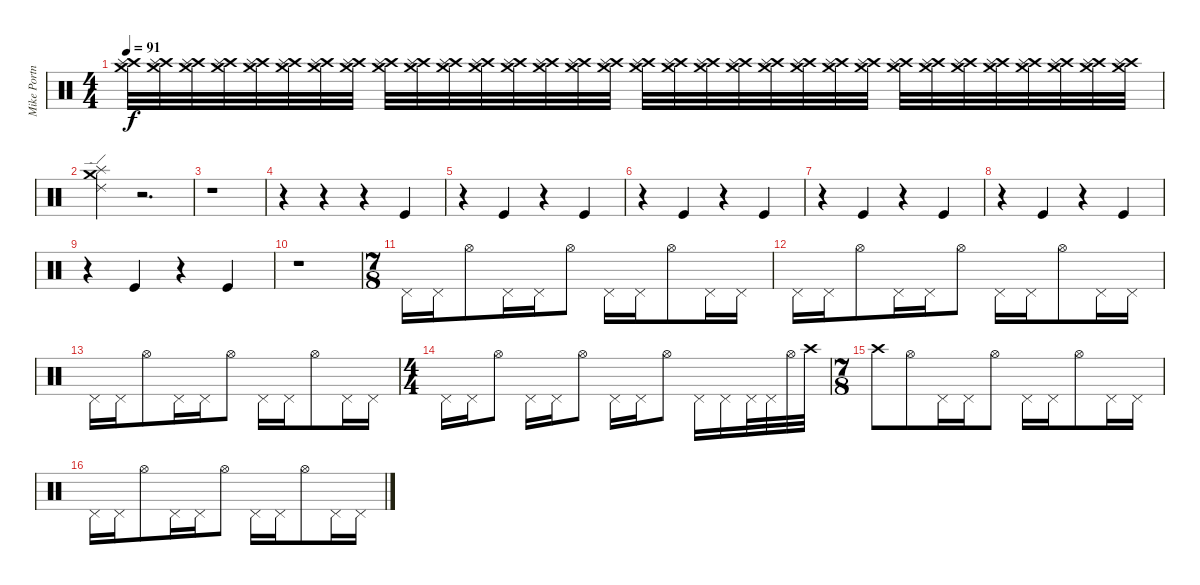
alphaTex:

\track ("Mike Portnoy" "Mike Portn") {instrument percussion}
\staff {score}
\articulation defaults
\ts (4 4)
\tempo 91
\clef neutral
\ks c
("Crash high (hit)" "Crash medium (hit)" "Splash (hit)").32{dy f} ("Crash high (hit)" "Crash medium (hit)" "Splash (hit)").32 ("Crash high (hit)" "Crash medium (hit)" "Splash (hit)").32 ("Crash high (hit)" "Crash medium (hit)" "Splash (hit)").32 ("Crash high (hit)" "Crash medium (hit)" "Splash (hit)").32 ("Crash high (hit)" "Crash medium (hit)" "Splash (hit)").32 ("Crash high (hit)" "Crash medium (hit)" "Splash (hit)").32 ("Crash high (hit)" "Crash medium (hit)" "Splash (hit)").32 ("Crash high (hit)" "Crash medium (hit)" "Splash (hit)").32 ("Crash high (hit)" "Crash medium (hit)" "Splash (hit)").32 ("Crash high (hit)" "Crash medium (hit)" "Splash (hit)").32 ("Crash high (hit)" "Crash medium (hit)" "Splash (hit)").32 ("Crash high (hit)" "Crash medium (hit)" "Splash (hit)").32 ("Crash high (hit)" "Crash medium (hit)" "Splash (hit)").32 ("Crash high (hit)" "Crash medium (hit)" "Splash (hit)").32 ("Crash high (hit)" "Crash medium (hit)" "Splash (hit)").32 ("Crash high (hit)" "Crash medium (hit)" "Splash (hit)").32 ("Crash high (hit)" "Crash medium (hit)" "Splash (hit)").32 ("Crash high (hit)" "Crash medium (hit)" "Splash (hit)").32 ("Crash high (hit)" "Crash medium (hit)" "Splash (hit)").32 ("Crash high (hit)" "Crash medium (hit)" "Splash (hit)").32 ("Crash high (hit)" "Crash medium (hit)" "Splash (hit)").32 ("Crash high (hit)" "Crash medium (hit)" "Splash (hit)").32 ("Crash high (hit)" "Crash medium (hit)" "Splash (hit)").32 ("Crash high (hit)" "Crash medium (hit)" "Splash (hit)").32{volume 8} ("Crash high (hit)" "Crash medium (hit)" "Splash (hit)").32 ("Crash high (hit)" "Crash medium (hit)" "Splash (hit)").32 ("Crash high (hit)" "Crash medium (hit)" "Splash (hit)").32 ("Crash high (hit)" "Crash medium (hit)" "Splash (hit)").32 ("Crash high (hit)" "Crash medium (hit)" "Splash (hit)").32 ("Crash high (hit)" "Crash medium (hit)" "Splash (hit)").32 ("Crash high (hit)" "Crash medium (hit)" "Splash (hit)").32 |
("Ride (edge) 2" "Crash medium (hit)" "Splash (hit)").4{volume 16} r.2{d} |
r.1 |
r.4 r.4 r.4 "Kick (hit)".4 |
r.4 "Kick (hit)".4 r.4 "Kick (hit)".4 |
r.4 "Kick (hit)".4 r.4 "Kick (hit)".4 |
r.4 "Kick (hit)".4 r.4 "Kick (hit)".4 |
r.4 "Kick (hit)".4 r.4 "Kick (hit)".4 |
r.4 "Kick (hit)".4 r.4 "Kick (hit)".4 |
r.1 |
\ts (7 8)
"Pedal Hi-Hat (hit)".16 "Pedal Hi-Hat (hit)".16 "Hi-Hat (open)".8 "Pedal Hi-Hat (hit)".16 "Pedal Hi-Hat (hit)".16 "Hi-Hat (open)".8 "Pedal Hi-Hat (hit)".16 "Pedal Hi-Hat (hit)".16 "Hi-Hat (open)".8 "Pedal Hi-Hat (hit)".16 "Pedal Hi-Hat (hit)".16 |
"Pedal Hi-Hat (hit)".16 "Pedal Hi-Hat (hit)".16 "Hi-Hat (open)".8 "Pedal Hi-Hat (hit)".16 "Pedal Hi-Hat (hit)".16 "Hi-Hat (open)".8 "Pedal Hi-Hat (hit)".16 "Pedal Hi-Hat (hit)".16 "Hi-Hat (open)".8 "Pedal Hi-Hat (hit)".16 "Pedal Hi-Hat (hit)".16 |
"Pedal Hi-Hat (hit)".16 "Pedal Hi-Hat (hit)".16 "Hi-Hat (open)".8 "Pedal Hi-Hat (hit)".16 "Pedal Hi-Hat (hit)".16 "Hi-Hat (open)".8 "Pedal Hi-Hat (hit)".16 "Pedal Hi-Hat (hit)".16 "Hi-Hat (open)".8 "Pedal Hi-Hat (hit)".16 "Pedal Hi-Hat (hit)".16 |
\ts (4 4)
"Pedal Hi-Hat (hit)".16 "Pedal Hi-Hat (hit)".16 "Hi-Hat (open)".8 "Pedal Hi-Hat (hit)".16 "Pedal Hi-Hat (hit)".16 "Hi-Hat (open)".8 "Pedal Hi-Hat (hit)".16 "Pedal Hi-Hat (hit)".16 "Hi-Hat (open)".8 "Pedal Hi-Hat (hit)".16 "Pedal Hi-Hat (hit)".16 "Pedal Hi-Hat (hit)".32 "Pedal Hi-Hat (hit)".32 "Hi-Hat (open)".32 "Crash high (hit)".32 |
\ts (7 8)
"Crash high (hit)".8 "Hi-Hat (open)".8 "Pedal Hi-Hat (hit)".16 "Pedal Hi-Hat (hit)".16 "Hi-Hat (open)".8 "Pedal Hi-Hat (hit)".16 "Pedal Hi-Hat (hit)".16 "Hi-Hat (open)".8 "Pedal Hi-Hat (hit)".16 "Pedal Hi-Hat (hit)".16 |
"Pedal Hi-Hat (hit)".16 "Pedal Hi-Hat (hit)".16 "Hi-Hat (open)".8 "Pedal Hi-Hat (hit)".16 "Pedal Hi-Hat (hit)".16 "Hi-Hat (open)".8 "Pedal Hi-Hat (hit)".16 "Pedal Hi-Hat (hit)".16 "Hi-Hat (open)".8 "Pedal Hi-Hat (hit)".16 "Pedal Hi-Hat (hit)".16
